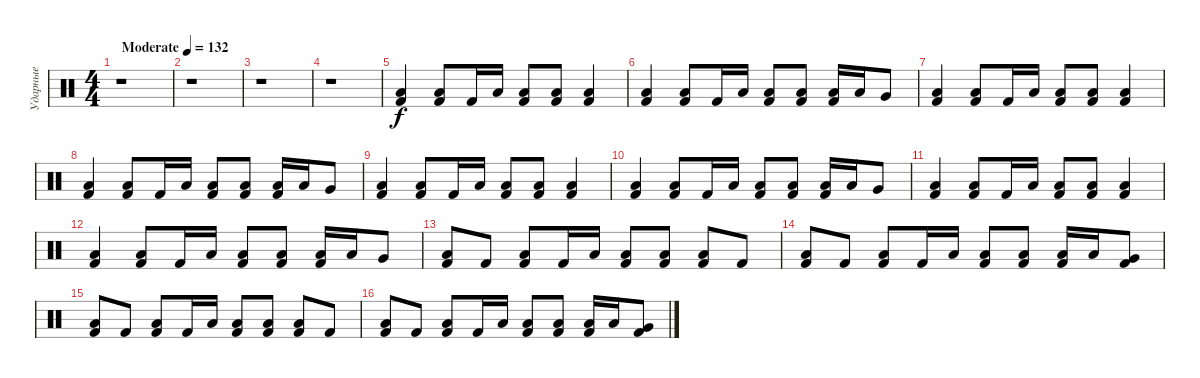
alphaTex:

\track ("Ударные" "Ударные") {instrument percussion}
\staff {score}
\articulation defaults
\ts (4 4)
\tempo (132 "Moderate")
\clef neutral
\ks c
r.1{dy f} |
r.1 |
r.1 |
r.1 |
("Low Tom (hit)" "Kick (hit) 2").4 ("Low Tom (hit)" "Kick (hit) 2").8 "Kick (hit) 2".16 "Low Floor Tom (hit)".16 ("Low Tom (hit)" "Kick (hit) 2").8 ("Low Tom (hit)" "Kick (hit) 2").8 ("Low Tom (hit)" "Kick (hit) 2").4 |
("Low Tom (hit)" "Kick (hit) 2").4 ("Low Tom (hit)" "Kick (hit) 2").8 "Kick (hit) 2".16 "Low Floor Tom (hit)".16 ("Low Tom (hit)" "Kick (hit) 2").8 ("Low Tom (hit)" "Kick (hit) 2").8 ("Low Tom (hit)" "Kick (hit) 2").16 "Low Tom (hit)".16 "Very Low Tom (hit)".8 |
("Low Tom (hit)" "Kick (hit) 2").4 ("Low Tom (hit)" "Kick (hit) 2").8 "Kick (hit) 2".16 "Low Floor Tom (hit)".16 ("Low Tom (hit)" "Kick (hit) 2").8 ("Low Tom (hit)" "Kick (hit) 2").8 ("Low Tom (hit)" "Kick (hit) 2").4 |
("Low Tom (hit)" "Kick (hit) 2").4 ("Low Tom (hit)" "Kick (hit) 2").8 "Kick (hit) 2".16 "Low Floor Tom (hit)".16 ("Low Tom (hit)" "Kick (hit) 2").8 ("Low Tom (hit)" "Kick (hit) 2").8 ("Low Tom (hit)" "Kick (hit) 2").16 "Low Tom (hit)".16 "Very Low Tom (hit)".8 |
("Low Tom (hit)" "Kick (hit) 2").4 ("Low Tom (hit)" "Kick (hit) 2").8 "Kick (hit) 2".16 "Low Floor Tom (hit)".16 ("Low Tom (hit)" "Kick (hit) 2").8 ("Low Tom (hit)" "Kick (hit) 2").8 ("Low Tom (hit)" "Kick (hit) 2").4 |
("Low Tom (hit)" "Kick (hit) 2").4 ("Low Tom (hit)" "Kick (hit) 2").8 "Kick (hit) 2".16 "Low Floor Tom (hit)".16 ("Low Tom (hit)" "Kick (hit) 2").8 ("Low Tom (hit)" "Kick (hit) 2").8 ("Low Tom (hit)" "Kick (hit) 2").16 "Low Tom (hit)".16 "Very Low Tom (hit)".8 |
("Low Tom (hit)" "Kick (hit) 2").4 ("Low Tom (hit)" "Kick (hit) 2").8 "Kick (hit) 2".16 "Low Floor Tom (hit)".16 ("Low Tom (hit)" "Kick (hit) 2").8 ("Low Tom (hit)" "Kick (hit) 2").8 ("Low Tom (hit)" "Kick (hit) 2").4 |
("Low Tom (hit)" "Kick (hit) 2").4 ("Low Tom (hit)" "Kick (hit) 2").8 "Kick (hit) 2".16 "Low Floor Tom (hit)".16 ("Low Tom (hit)" "Kick (hit) 2").8 ("Low Tom (hit)" "Kick (hit) 2").8 ("Low Tom (hit)" "Kick (hit) 2").16 "Low Tom (hit)".16 "Very Low Tom (hit)".8 |
("Low Tom (hit)" "Kick (hit) 2").8 "Kick (hit) 2".8 ("Low Tom (hit)" "Kick (hit) 2").8 "Kick (hit) 2".16 "Low Floor Tom (hit)".16 ("Low Tom (hit)" "Kick (hit) 2").8 ("Low Tom (hit)" "Kick (hit) 2").8 ("Low Tom (hit)" "Kick (hit) 2").8 "Kick (hit) 2".8 |
("Low Tom (hit)" "Kick (hit) 2").8 "Kick (hit) 2".8 ("Low Tom (hit)" "Kick (hit) 2").8 "Kick (hit) 2".16 "Low Floor Tom (hit)".16 ("Low Tom (hit)" "Kick (hit) 2").8 ("Low Tom (hit)" "Kick (hit) 2").8 ("Low Tom (hit)" "Kick (hit) 2").16 "Low Tom (hit)".16 ("Very Low Tom (hit)" "Kick (hit) 2").8 |
("Low Tom (hit)" "Kick (hit) 2").8 "Kick (hit) 2".8 ("Low Tom (hit)" "Kick (hit) 2").8 "Kick (hit) 2".16 "Low Floor Tom (hit)".16 ("Low Tom (hit)" "Kick (hit) 2").8 ("Low Tom (hit)" "Kick (hit) 2").8 ("Low Tom (hit)" "Kick (hit) 2").8 "Kick (hit) 2".8 |
("Low Tom (hit)" "Kick (hit) 2").8 "Kick (hit) 2".8 ("Low Tom (hit)" "Kick (hit) 2").8 "Kick (hit) 2".16 "Low Floor Tom (hit)".16 ("Low Tom (hit)" "Kick (hit) 2").8 ("Low Tom (hit)" "Kick (hit) 2").8 ("Low Tom (hit)" "Kick (hit) 2").16 "Low Tom (hit)".16 ("Very Low Tom (hit)" "Kick (hit) 2").8
